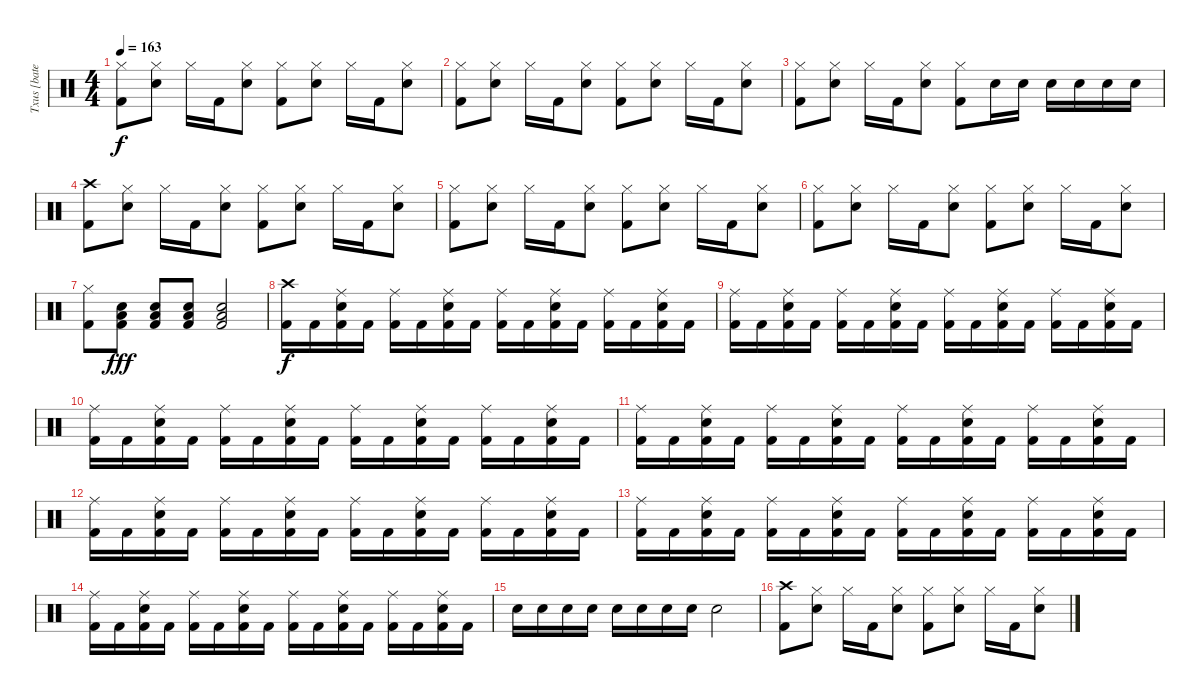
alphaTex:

\track ("Txus [bateria]" "Txus [bate") {instrument percussion}
\staff {score}
\articulation defaults
\ts (4 4)
\tempo 163
\clef neutral
\ks c
("Hi-Hat (closed)" "Kick (hit) 2").8{dy f} ("Hi-Hat (closed)" "Snare (hit) 2").8 "Hi-Hat (closed)".16 "Kick (hit) 2".16 ("Hi-Hat (closed)" "Snare (hit) 2").8 ("Hi-Hat (closed)" "Kick (hit) 2").8 ("Hi-Hat (closed)" "Snare (hit) 2").8 "Hi-Hat (closed)".16 "Kick (hit) 2".16 ("Hi-Hat (closed)" "Snare (hit) 2").8 |
("Hi-Hat (closed)" "Kick (hit) 2").8 ("Hi-Hat (closed)" "Snare (hit) 2").8 "Hi-Hat (closed)".16 "Kick (hit) 2".16 ("Hi-Hat (closed)" "Snare (hit) 2").8 ("Hi-Hat (closed)" "Kick (hit) 2").8 ("Hi-Hat (closed)" "Snare (hit) 2").8 "Hi-Hat (closed)".16 "Kick (hit) 2".16 ("Hi-Hat (closed)" "Snare (hit) 2").8 |
("Hi-Hat (closed)" "Kick (hit) 2").8 ("Hi-Hat (closed)" "Snare (hit) 2").8 "Hi-Hat (closed)".16 "Kick (hit) 2".16 ("Hi-Hat (closed)" "Snare (hit) 2").8 ("Hi-Hat (closed)" "Kick (hit) 2").8 "Snare (hit) 2".16 "Snare (hit) 2".16 "Snare (hit) 2".16 "Snare (hit) 2".16 "Snare (hit) 2".16 "Snare (hit) 2".16 |
("Crash high (hit)" "Kick (hit) 2").8 ("Hi-Hat (closed)" "Snare (hit) 2").8 "Hi-Hat (closed)".16 "Kick (hit) 2".16 ("Hi-Hat (closed)" "Snare (hit) 2").8 ("Hi-Hat (closed)" "Kick (hit) 2").8 ("Hi-Hat (closed)" "Snare (hit) 2").8 "Hi-Hat (closed)".16 "Kick (hit) 2".16 ("Hi-Hat (closed)" "Snare (hit) 2").8 |
("Hi-Hat (closed)" "Kick (hit) 2").8 ("Hi-Hat (closed)" "Snare (hit) 2").8 "Hi-Hat (closed)".16 "Kick (hit) 2".16 ("Hi-Hat (closed)" "Snare (hit) 2").8 ("Hi-Hat (closed)" "Kick (hit) 2").8 ("Hi-Hat (closed)" "Snare (hit) 2").8 "Hi-Hat (closed)".16 "Kick (hit) 2".16 ("Hi-Hat (closed)" "Snare (hit) 2").8 |
("Hi-Hat (closed)" "Kick (hit) 2").8 ("Hi-Hat (closed)" "Snare (hit) 2").8 "Hi-Hat (closed)".16 "Kick (hit) 2".16 ("Hi-Hat (closed)" "Snare (hit) 2").8 ("Hi-Hat (closed)" "Kick (hit) 2").8 ("Hi-Hat (closed)" "Snare (hit) 2").8 "Hi-Hat (closed)".16 "Kick (hit) 2".16 ("Hi-Hat (closed)" "Snare (hit) 2").8 |
("Hi-Hat (closed)" "Kick (hit) 2").8 ("Snare (hit) 2" "Low Floor Tom (hit)" "Kick (hit) 2").8{dy fff} ("Snare (hit) 2" "Low Floor Tom (hit)" "Kick (hit) 2").8 ("Snare (hit) 2" "Low Floor Tom (hit)" "Kick (hit) 2").8 ("Snare (hit) 2" "Low Floor Tom (hit)" "Kick (hit) 2").2 |
("Crash high (hit)" "Kick (hit) 2").16{dy f} "Kick (hit) 2".16 ("Ride (middle)" "Snare (hit) 2" "Kick (hit) 2").16 "Kick (hit) 2".16 ("Ride (middle)" "Kick (hit) 2").16 "Kick (hit) 2".16 ("Ride (middle)" "Snare (hit) 2" "Kick (hit) 2").16 "Kick (hit) 2".16 ("Ride (middle)" "Kick (hit) 2").16 "Kick (hit) 2".16 ("Ride (middle)" "Snare (hit) 2" "Kick (hit) 2").16 "Kick (hit) 2".16 ("Ride (middle)" "Kick (hit) 2").16 "Kick (hit) 2".16 ("Ride (middle)" "Snare (hit) 2" "Kick (hit) 2").16 "Kick (hit) 2".16 |
("Ride (middle)" "Kick (hit) 2").16 "Kick (hit) 2".16 ("Ride (middle)" "Snare (hit) 2" "Kick (hit) 2").16 "Kick (hit) 2".16 ("Ride (middle)" "Kick (hit) 2").16 "Kick (hit) 2".16 ("Ride (middle)" "Snare (hit) 2" "Kick (hit) 2").16 "Kick (hit) 2".16 ("Ride (middle)" "Kick (hit) 2").16 "Kick (hit) 2".16 ("Ride (middle)" "Snare (hit) 2" "Kick (hit) 2").16 "Kick (hit) 2".16 ("Ride (middle)" "Kick (hit) 2").16 "Kick (hit) 2".16 ("Ride (middle)" "Snare (hit) 2" "Kick (hit) 2").16 "Kick (hit) 2".16 |
("Ride (middle)" "Kick (hit) 2").16 "Kick (hit) 2".16 ("Ride (middle)" "Snare (hit) 2" "Kick (hit) 2").16 "Kick (hit) 2".16 ("Ride (middle)" "Kick (hit) 2").16 "Kick (hit) 2".16 ("Ride (middle)" "Snare (hit) 2" "Kick (hit) 2").16 "Kick (hit) 2".16 ("Ride (middle)" "Kick (hit) 2").16 "Kick (hit) 2".16 ("Ride (middle)" "Snare (hit) 2" "Kick (hit) 2").16 "Kick (hit) 2".16 ("Ride (middle)" "Kick (hit) 2").16 "Kick (hit) 2".16 ("Ride (middle)" "Snare (hit) 2" "Kick (hit) 2").16 "Kick (hit) 2".16 |
("Ride (middle)" "Kick (hit) 2").16 "Kick (hit) 2".16 ("Ride (middle)" "Snare (hit) 2" "Kick (hit) 2").16 "Kick (hit) 2".16 ("Ride (middle)" "Kick (hit) 2").16 "Kick (hit) 2".16 ("Ride (middle)" "Snare (hit) 2" "Kick (hit) 2").16 "Kick (hit) 2".16 ("Ride (middle)" "Kick (hit) 2").16 "Kick (hit) 2".16 ("Ride (middle)" "Snare (hit) 2" "Kick (hit) 2").16 "Kick (hit) 2".16 ("Ride (middle)" "Kick (hit) 2").16 "Kick (hit) 2".16 ("Ride (middle)" "Snare (hit) 2" "Kick (hit) 2").16 "Kick (hit) 2".16 |
("Ride (middle)" "Kick (hit) 2").16 "Kick (hit) 2".16 ("Ride (middle)" "Snare (hit) 2" "Kick (hit) 2").16 "Kick (hit) 2".16 ("Ride (middle)" "Kick (hit) 2").16 "Kick (hit) 2".16 ("Ride (middle)" "Snare (hit) 2" "Kick (hit) 2").16 "Kick (hit) 2".16 ("Ride (middle)" "Kick (hit) 2").16 "Kick (hit) 2".16 ("Ride (middle)" "Snare (hit) 2" "Kick (hit) 2").16 "Kick (hit) 2".16 ("Ride (middle)" "Kick (hit) 2").16 "Kick (hit) 2".16 ("Ride (middle)" "Snare (hit) 2" "Kick (hit) 2").16 "Kick (hit) 2".16 |
("Ride (middle)" "Kick (hit) 2").16 "Kick (hit) 2".16 ("Ride (middle)" "Snare (hit) 2" "Kick (hit) 2").16 "Kick (hit) 2".16 ("Ride (middle)" "Kick (hit) 2").16 "Kick (hit) 2".16 ("Ride (middle)" "Snare (hit) 2" "Kick (hit) 2").16 "Kick (hit) 2".16 ("Ride (middle)" "Kick (hit) 2").16 "Kick (hit) 2".16 ("Ride (middle)" "Snare (hit) 2" "Kick (hit) 2").16 "Kick (hit) 2".16 ("Ride (middle)" "Kick (hit) 2").16 "Kick (hit) 2".16 ("Ride (middle)" "Snare (hit) 2" "Kick (hit) 2").16 "Kick (hit) 2".16 |
("Ride (middle)" "Kick (hit) 2").16 "Kick (hit) 2".16 ("Ride (middle)" "Snare (hit) 2" "Kick (hit) 2").16 "Kick (hit) 2".16 ("Ride (middle)" "Kick (hit) 2").16 "Kick (hit) 2".16 ("Ride (middle)" "Snare (hit) 2" "Kick (hit) 2").16 "Kick (hit) 2".16 ("Ride (middle)" "Kick (hit) 2").16 "Kick (hit) 2".16 ("Ride (middle)" "Snare (hit) 2" "Kick (hit) 2").16 "Kick (hit) 2".16 ("Ride (middle)" "Kick (hit) 2").16 "Kick (hit) 2".16 ("Ride (middle)" "Snare (hit) 2" "Kick (hit) 2").16 "Kick (hit) 2".16 |
"Snare (hit) 2".16 "Snare (hit) 2".16 "Snare (hit) 2".16 "Snare (hit) 2".16 "Snare (hit) 2".16 "Snare (hit) 2".16 "Snare (hit) 2".16 "Snare (hit) 2".16 "Snare (hit) 2".2 |
("Crash high (hit)" "Kick (hit) 2").8 ("Hi-Hat (closed)" "Snare (hit) 2").8 "Hi-Hat (closed)".16 "Kick (hit) 2".16 ("Hi-Hat (closed)" "Snare (hit) 2").8 ("Hi-Hat (closed)" "Kick (hit) 2").8 ("Hi-Hat (closed)" "Snare (hit) 2").8 "Hi-Hat (closed)".16 "Kick (hit) 2".16 ("Hi-Hat (closed)" "Snare (hit) 2").8
